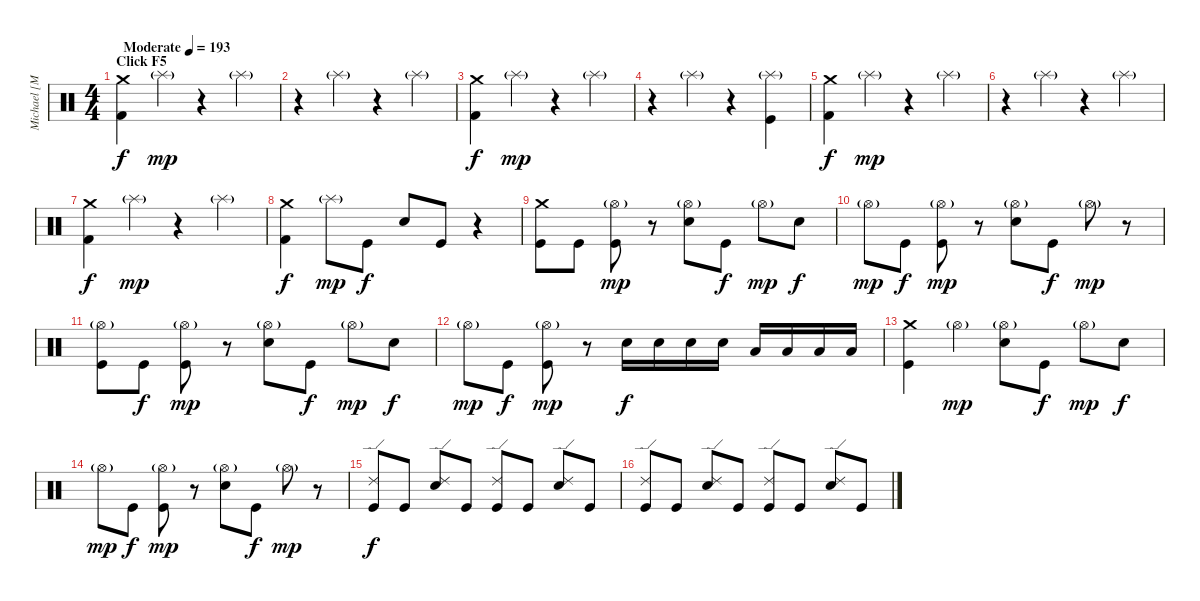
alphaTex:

\track ("Michael [Moose] Thomas" "Michael [M") {instrument percussion}
\staff {score}
\articulation defaults
\ts (4 4)
\section ("" "Click F5")
\tempo (193 "Moderate")
\clef neutral
\ks c
("Crash medium (hit)" "Kick (hit) 2").4{dy f} "Splash (hit)"{g}.4{dy mp} r.4 "Splash (hit)"{g}.4 |
r.4 "Splash (hit)"{g}.4 r.4 "Splash (hit)"{g}.4 |
("Crash medium (hit)" "Kick (hit) 2").4{dy f} "Splash (hit)"{g}.4{dy mp} r.4 "Splash (hit)"{g}.4 |
r.4 "Splash (hit)"{g}.4 r.4 ("Splash (hit)"{g} "Kick (hit)").4 |
("Crash medium (hit)" "Kick (hit) 2").4{dy f} "Splash (hit)"{g}.4{dy mp} r.4 "Splash (hit)"{g}.4 |
r.4 "Splash (hit)"{g}.4 r.4 "Splash (hit)"{g}.4 |
("Crash medium (hit)" "Kick (hit) 2").4{dy f} "Splash (hit)"{g}.4{dy mp} r.4 "Splash (hit)"{g}.4 |
("Crash medium (hit)" "Kick (hit) 2").4{dy f} "Splash (hit)"{g}.8{dy mp} "Kick (hit)".8{dy f} "Snare (hit) 2".8 "Kick (hit)".8 r.4 |
("Crash medium (hit)" "Kick (hit)").8 "Kick (hit)".8 ("Hi-Hat (open)"{g} "Kick (hit)").8{dy mp} r.8 ("Hi-Hat (open)"{g} "Snare (hit) 2").8 "Kick (hit)".8{dy f} "Hi-Hat (open)"{g}.8{dy mp} "Snare (hit) 2".8{dy f} |
"Hi-Hat (open)"{g}.8{dy mp} "Kick (hit)".8{dy f} ("Hi-Hat (open)"{g} "Kick (hit)").8{dy mp} r.8 ("Hi-Hat (open)"{g} "Snare (hit) 2").8 "Kick (hit)".8{dy f} "Hi-Hat (open)"{g}.8{dy mp} r.8 |
("Hi-Hat (open)"{g} "Kick (hit)").8 "Kick (hit)".8{dy f} ("Hi-Hat (open)"{g} "Kick (hit)").8{dy mp} r.8 ("Hi-Hat (open)"{g} "Snare (hit) 2").8 "Kick (hit)".8{dy f} "Hi-Hat (open)"{g}.8{dy mp} "Snare (hit) 2".8{dy f} |
"Hi-Hat (open)"{g}.8{dy mp} "Kick (hit)".8{dy f} ("Hi-Hat (open)"{g} "Kick (hit)").8{dy mp} r.8 "Snare (hit) 2".16{dy f} "Snare (hit) 2".16 "Snare (hit) 2".16 "Snare (hit) 2".16 "Low Tom (hit)".16 "Low Tom (hit)".16 "Low Floor Tom (hit)".16 "Low Floor Tom (hit)".16 |
("Crash medium (hit)" "Kick (hit)").4 "Hi-Hat (open)"{g}.4{dy mp} ("Hi-Hat (open)"{g} "Snare (hit) 2").8 "Kick (hit)".8{dy f} "Hi-Hat (open)"{g}.8{dy mp} "Snare (hit) 2".8{dy f} |
"Hi-Hat (open)"{g}.8{dy mp} "Kick (hit)".8{dy f} ("Hi-Hat (open)"{g} "Kick (hit)").8{dy mp} r.8 ("Hi-Hat (open)"{g} "Snare (hit) 2").8 "Kick (hit)".8{dy f} "Hi-Hat (open)"{g}.8{dy mp} r.8 |
("Ride (edge) 2" "Kick (hit)").8{dy f} "Kick (hit)".8 ("Ride (edge) 2" "Snare (hit) 2").8 "Kick (hit)".8 ("Ride (edge) 2" "Kick (hit)").8 "Kick (hit)".8 ("Ride (edge) 2" "Snare (hit) 2").8 "Kick (hit)".8 |
("Ride (edge) 2" "Kick (hit)").8 "Kick (hit)".8 ("Ride (edge) 2" "Snare (hit) 2").8 "Kick (hit)".8 ("Ride (edge) 2" "Kick (hit)").8 "Kick (hit)".8 ("Ride (edge) 2" "Snare (hit) 2").8 "Kick (hit)".8
